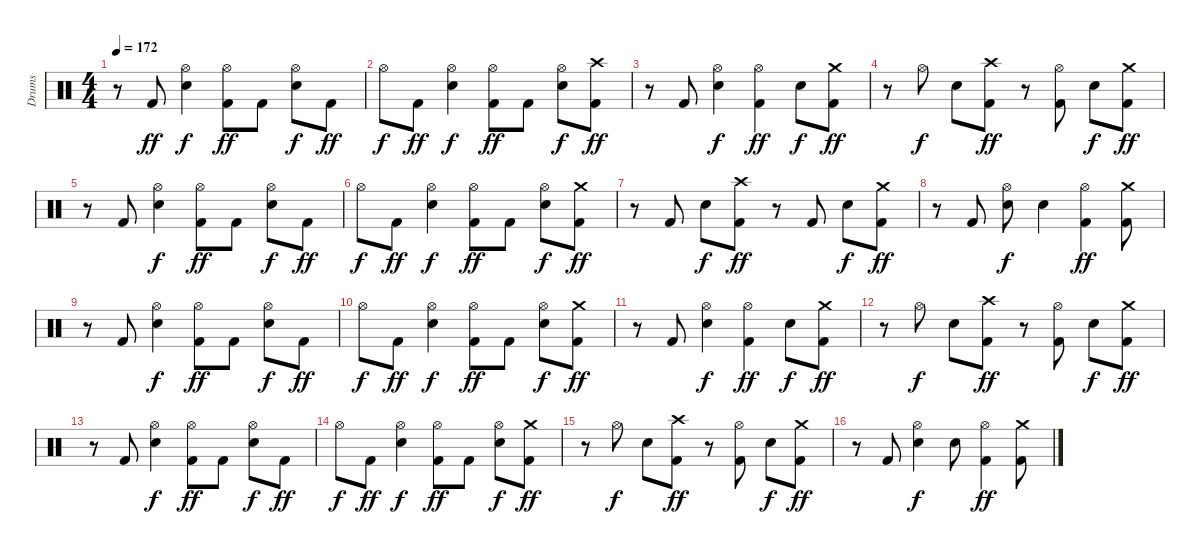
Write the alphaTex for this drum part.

\track ("Drums" "Drums") {instrument percussion}
\staff {score}
\articulation defaults
\ts (4 4)
\tempo 172
\clef neutral
\ks c
r.8{dy ff} "Kick (hit) 2".8 ("Hi-Hat (open)" "Electric Snare (hit)").4{dy f} ("Hi-Hat (open)" "Kick (hit) 2").8{dy ff} "Kick (hit) 2".8 ("Hi-Hat (open)" "Electric Snare (hit)").8{dy f} "Kick (hit) 2".8{dy ff} |
"Hi-Hat (open)".8{dy f} "Kick (hit) 2".8{dy ff} ("Hi-Hat (open)" "Electric Snare (hit)").4{dy f} ("Hi-Hat (open)" "Kick (hit) 2").8{dy ff} "Kick (hit) 2".8 ("Hi-Hat (open)" "Electric Snare (hit)").8{dy f} ("Crash high (hit)" "Kick (hit) 2").8{dy ff} |
r.8 "Kick (hit) 2".8 ("Hi-Hat (open)" "Electric Snare (hit)").4{dy f} ("Hi-Hat (open)" "Kick (hit) 2").4{dy ff} "Electric Snare (hit)".8{dy f} ("Crash medium (hit)" "Kick (hit) 2").8{dy ff} |
r.8 "Hi-Hat (open)".8{dy f} "Electric Snare (hit)".8 ("Crash high (hit)" "Kick (hit) 2").8{dy ff} r.8 ("Hi-Hat (open)" "Kick (hit) 2").8 "Electric Snare (hit)".8{dy f} ("Crash medium (hit)" "Kick (hit) 2").8{dy ff} |
r.8 "Kick (hit) 2".8 ("Hi-Hat (open)" "Electric Snare (hit)").4{dy f} ("Hi-Hat (open)" "Kick (hit) 2").8{dy ff} "Kick (hit) 2".8 ("Hi-Hat (open)" "Electric Snare (hit)").8{dy f} "Kick (hit) 2".8{dy ff} |
"Hi-Hat (open)".8{dy f} "Kick (hit) 2".8{dy ff} ("Hi-Hat (open)" "Electric Snare (hit)").4{dy f} ("Hi-Hat (open)" "Kick (hit) 2").8{dy ff} "Kick (hit) 2".8 ("Hi-Hat (open)" "Electric Snare (hit)").8{dy f} ("Crash medium (hit)" "Kick (hit) 2").8{dy ff} |
r.8 "Kick (hit) 2".8 "Electric Snare (hit)".8{dy f} ("Crash high (hit)" "Kick (hit) 2").8{dy ff} r.8 "Kick (hit) 2".8 "Electric Snare (hit)".8{dy f} ("Crash medium (hit)" "Kick (hit) 2").8{dy ff} |
r.8 "Kick (hit) 2".8 ("Hi-Hat (open)" "Electric Snare (hit)").8{dy f} "Electric Snare (hit)".4 ("Hi-Hat (open)" "Kick (hit) 2").4{dy ff} ("Crash medium (hit)" "Kick (hit) 2").8 |
r.8 "Kick (hit) 2".8 ("Hi-Hat (open)" "Electric Snare (hit)").4{dy f} ("Hi-Hat (open)" "Kick (hit) 2").8{dy ff} "Kick (hit) 2".8 ("Hi-Hat (open)" "Electric Snare (hit)").8{dy f} "Kick (hit) 2".8{dy ff} |
"Hi-Hat (open)".8{dy f} "Kick (hit) 2".8{dy ff} ("Hi-Hat (open)" "Electric Snare (hit)").4{dy f} ("Hi-Hat (open)" "Kick (hit) 2").8{dy ff} "Kick (hit) 2".8 ("Hi-Hat (open)" "Electric Snare (hit)").8{dy f} ("Crash medium (hit)" "Kick (hit) 2").8{dy ff} |
r.8 "Kick (hit) 2".8 ("Hi-Hat (open)" "Electric Snare (hit)").4{dy f} ("Hi-Hat (open)" "Kick (hit) 2").4{dy ff} "Electric Snare (hit)".8{dy f} ("Crash medium (hit)" "Kick (hit) 2").8{dy ff} |
r.8 "Hi-Hat (open)".8{dy f} "Electric Snare (hit)".8 ("Crash high (hit)" "Kick (hit) 2").8{dy ff} r.8 ("Hi-Hat (open)" "Kick (hit) 2").8 "Electric Snare (hit)".8{dy f} ("Crash medium (hit)" "Kick (hit) 2").8{dy ff} |
r.8 "Kick (hit) 2".8 ("Hi-Hat (open)" "Electric Snare (hit)").4{dy f} ("Hi-Hat (open)" "Kick (hit) 2").8{dy ff} "Kick (hit) 2".8 ("Hi-Hat (open)" "Electric Snare (hit)").8{dy f} "Kick (hit) 2".8{dy ff} |
"Hi-Hat (open)".8{dy f} "Kick (hit) 2".8{dy ff} ("Hi-Hat (open)" "Electric Snare (hit)").4{dy f} ("Hi-Hat (open)" "Kick (hit) 2").8{dy ff} "Kick (hit) 2".8 ("Hi-Hat (open)" "Electric Snare (hit)").8{dy f} ("Crash medium (hit)" "Kick (hit) 2").8{dy ff} |
r.8 "Hi-Hat (open)".8{dy f} "Electric Snare (hit)".8 ("Crash high (hit)" "Kick (hit) 2").8{dy ff} r.8 ("Hi-Hat (open)" "Kick (hit) 2").8 "Electric Snare (hit)".8{dy f} ("Crash medium (hit)" "Kick (hit) 2").8{dy ff} |
r.8 "Kick (hit) 2".8 ("Hi-Hat (open)" "Electric Snare (hit)").4{dy f} "Electric Snare (hit)".8 ("Hi-Hat (open)" "Kick (hit) 2").4{dy ff} ("Crash medium (hit)" "Kick (hit) 2").8
